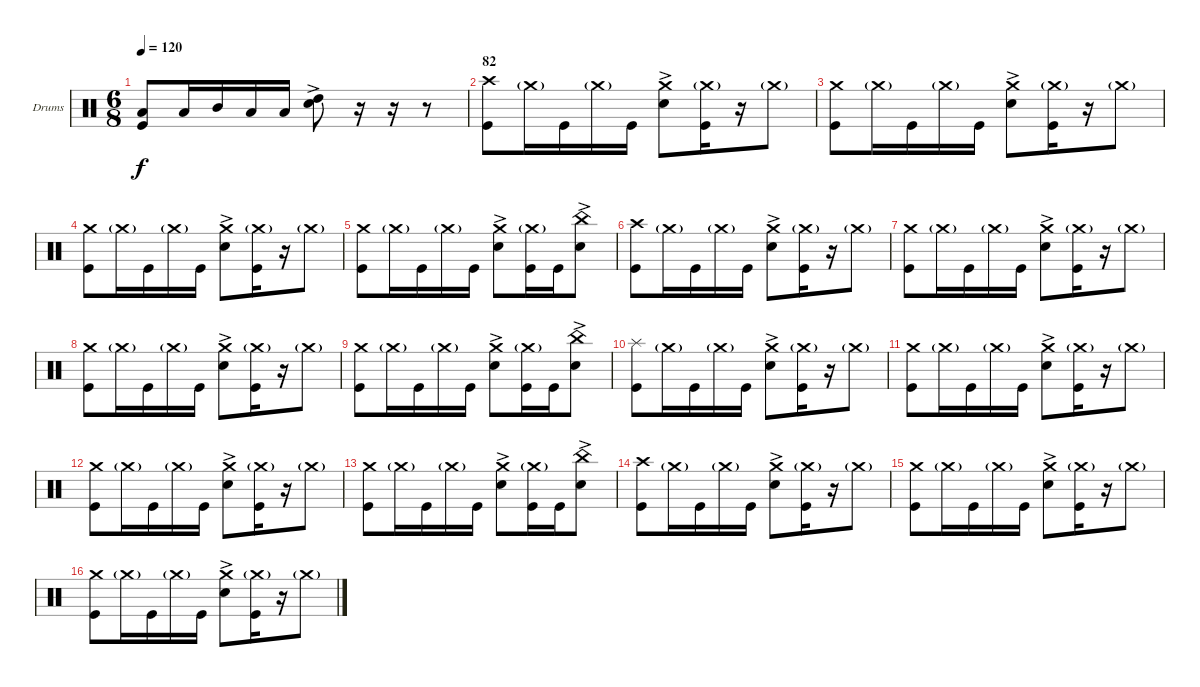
\bracketExtendMode groupsimilarinstruments
\firstSystemTrackNameOrientation horizontal
\otherSystemsTrackNameOrientation horizontal
\track ("Drumkit" "Drums") {instrument percussion}
\staff {score}
\articulation defaults
\ts (6 8)
\tempo 120
\clef neutral
\ks c
("Kick (hit)" "Low Tom (hit)").8{dy f} "Low Tom (hit)".16 "Mid Tom (hit)".16 "Low Tom (hit)".16 "Low Tom (hit)".16 ("Snare (hit) 2"{ac} "High Tom (hit)").8 r.16 r.16 r.8 |
\section ("" "82")
("Kick (hit)" "Crash high (hit)").8 "Crash medium (hit)"{g}.16 "Kick (hit)".16 "Crash medium (hit)"{g}.16 "Kick (hit)".16 ("Snare (hit) 2"{ac} "Crash medium (hit)").8 ("Kick (hit)" "Crash medium (hit)"{g}).16 r.16 "Crash medium (hit)"{g}.8 |
("Kick (hit)" "Crash medium (hit)").8 "Crash medium (hit)"{g}.16 "Kick (hit)".16 "Crash medium (hit)"{g}.16 "Kick (hit)".16 ("Snare (hit) 2"{ac} "Crash medium (hit)").8 ("Kick (hit)" "Crash medium (hit)"{g}).16 r.16 "Crash medium (hit)"{g}.8 |
("Kick (hit)" "Crash medium (hit)").8 "Crash medium (hit)"{g}.16 "Kick (hit)".16 "Crash medium (hit)"{g}.16 "Kick (hit)".16 ("Snare (hit) 2"{ac} "Crash medium (hit)").8 ("Kick (hit)" "Crash medium (hit)"{g}).16 r.16 "Crash medium (hit)"{g}.8 |
("Kick (hit)" "Crash medium (hit)").8 "Crash medium (hit)"{g}.16 "Kick (hit)".16 "Crash medium (hit)"{g}.16 "Kick (hit)".16 ("Snare (hit) 2"{ac} "Crash medium (hit)").8 ("Kick (hit)" "Crash medium (hit)"{g}).16 "Kick (hit)".16 ("Snare (hit) 2"{ac} "China (hit)").8 |
("Kick (hit)" "Crash high (hit)").8 "Crash medium (hit)"{g}.16 "Kick (hit)".16 "Crash medium (hit)"{g}.16 "Kick (hit)".16 ("Snare (hit) 2"{ac} "Crash medium (hit)").8 ("Kick (hit)" "Crash medium (hit)"{g}).16 r.16 "Crash medium (hit)"{g}.8 |
("Kick (hit)" "Crash medium (hit)").8 "Crash medium (hit)"{g}.16 "Kick (hit)".16 "Crash medium (hit)"{g}.16 "Kick (hit)".16 ("Snare (hit) 2"{ac} "Crash medium (hit)").8 ("Kick (hit)" "Crash medium (hit)"{g}).16 r.16 "Crash medium (hit)"{g}.8 |
("Kick (hit)" "Crash medium (hit)").8 "Crash medium (hit)"{g}.16 "Kick (hit)".16 "Crash medium (hit)"{g}.16 "Kick (hit)".16 ("Snare (hit) 2"{ac} "Crash medium (hit)").8 ("Kick (hit)" "Crash medium (hit)"{g}).16 r.16 "Crash medium (hit)"{g}.8 |
("Kick (hit)" "Crash medium (hit)").8 "Crash medium (hit)"{g}.16 "Kick (hit)".16 "Crash medium (hit)"{g}.16 "Kick (hit)".16 ("Snare (hit) 2"{ac} "Crash medium (hit)").8 ("Kick (hit)" "Crash medium (hit)"{g}).16 "Kick (hit)".16 ("Snare (hit) 2"{ac} "China (hit)").8 |
("Kick (hit)" "Splash (hit)").8 "Crash medium (hit)"{g}.16 "Kick (hit)".16 "Crash medium (hit)"{g}.16 "Kick (hit)".16 ("Snare (hit) 2"{ac} "Crash medium (hit)").8 ("Kick (hit)" "Crash medium (hit)"{g}).16 r.16 "Crash medium (hit)"{g}.8 |
("Kick (hit)" "Crash medium (hit)").8 "Crash medium (hit)"{g}.16 "Kick (hit)".16 "Crash medium (hit)"{g}.16 "Kick (hit)".16 ("Snare (hit) 2"{ac} "Crash medium (hit)").8 ("Kick (hit)" "Crash medium (hit)"{g}).16 r.16 "Crash medium (hit)"{g}.8 |
("Kick (hit)" "Crash medium (hit)").8 "Crash medium (hit)"{g}.16 "Kick (hit)".16 "Crash medium (hit)"{g}.16 "Kick (hit)".16 ("Snare (hit) 2"{ac} "Crash medium (hit)").8 ("Kick (hit)" "Crash medium (hit)"{g}).16 r.16 "Crash medium (hit)"{g}.8 |
("Kick (hit)" "Crash medium (hit)").8 "Crash medium (hit)"{g}.16 "Kick (hit)".16 "Crash medium (hit)"{g}.16 "Kick (hit)".16 ("Snare (hit) 2"{ac} "Crash medium (hit)").8 ("Kick (hit)" "Crash medium (hit)"{g}).16 "Kick (hit)".16 ("Snare (hit) 2"{ac} "China (hit)").8 |
("Kick (hit)" "Crash high (hit)").8 "Crash medium (hit)"{g}.16 "Kick (hit)".16 "Crash medium (hit)"{g}.16 "Kick (hit)".16 ("Snare (hit) 2"{ac} "Crash medium (hit)").8 ("Kick (hit)" "Crash medium (hit)"{g}).16 r.16 "Crash medium (hit)"{g}.8 |
("Kick (hit)" "Crash medium (hit)").8 "Crash medium (hit)"{g}.16 "Kick (hit)".16 "Crash medium (hit)"{g}.16 "Kick (hit)".16 ("Snare (hit) 2"{ac} "Crash medium (hit)").8 ("Kick (hit)" "Crash medium (hit)"{g}).16 r.16 "Crash medium (hit)"{g}.8 |
("Kick (hit)" "Crash medium (hit)").8 "Crash medium (hit)"{g}.16 "Kick (hit)".16 "Crash medium (hit)"{g}.16 "Kick (hit)".16 ("Snare (hit) 2"{ac} "Crash medium (hit)").8 ("Kick (hit)" "Crash medium (hit)"{g}).16 r.16 "Crash medium (hit)"{g}.8
